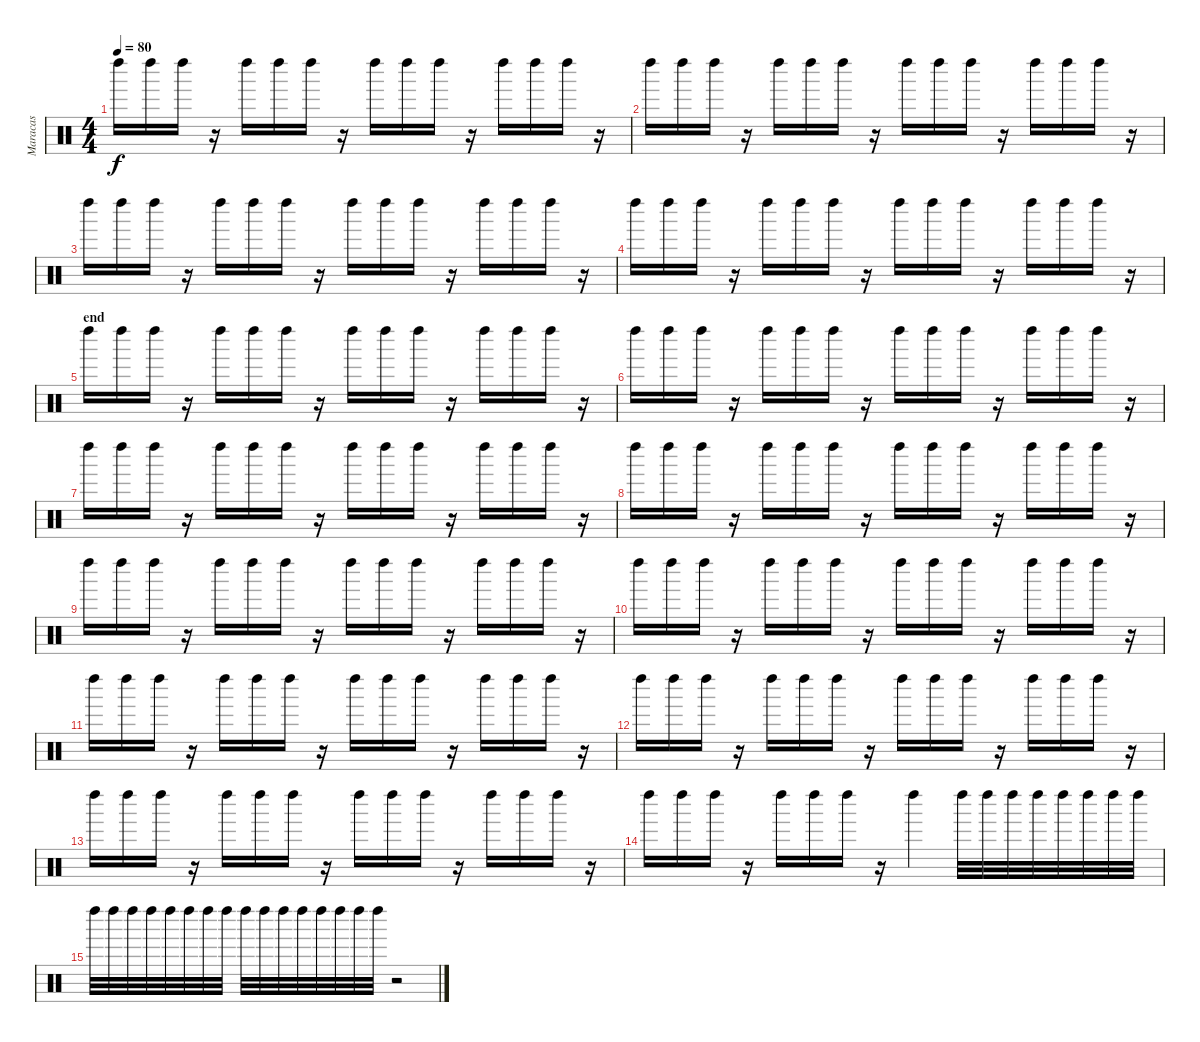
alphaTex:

\track ("Maracas" "Maracas") {instrument percussion}
\staff {score}
\articulation defaults
\ts (4 4)
\tempo 80
\clef neutral
\ks aminor "Left Maraca (hit)".16{dy f} "Left Maraca (hit)".16 "Left Maraca (hit)".16
r.16 "Left Maraca (hit)".16 "Left Maraca (hit)".16 "Left Maraca (hit)".16 r.16 "Left Maraca (hit)".16 "Left Maraca (hit)".16 "Left Maraca (hit)".16 r.16 "Left Maraca (hit)".16 "Left Maraca (hit)".16 "Left Maraca (hit)".16 r.16 |
"Left Maraca (hit)".16 "Left Maraca (hit)".16 "Left Maraca (hit)".16 r.16 "Left Maraca (hit)".16 "Left Maraca (hit)".16 "Left Maraca (hit)".16 r.16 "Left Maraca (hit)".16 "Left Maraca (hit)".16 "Left Maraca (hit)".16 r.16 "Left Maraca (hit)".16 "Left Maraca (hit)".16 "Left Maraca (hit)".16 r.16 |
"Left Maraca (hit)".16 "Left Maraca (hit)".16 "Left Maraca (hit)".16 r.16 "Left Maraca (hit)".16 "Left Maraca (hit)".16 "Left Maraca (hit)".16 r.16 "Left Maraca (hit)".16 "Left Maraca (hit)".16 "Left Maraca (hit)".16 r.16 "Left Maraca (hit)".16 "Left Maraca (hit)".16 "Left Maraca (hit)".16 r.16 |
"Left Maraca (hit)".16 "Left Maraca (hit)".16 "Left Maraca (hit)".16 r.16 "Left Maraca (hit)".16 "Left Maraca (hit)".16 "Left Maraca (hit)".16 r.16 "Left Maraca (hit)".16 "Left Maraca (hit)".16 "Left Maraca (hit)".16 r.16 "Left Maraca (hit)".16 "Left Maraca (hit)".16 "Left Maraca (hit)".16 r.16 |
\section ("" "end")
"Left Maraca (hit)".16 "Left Maraca (hit)".16 "Left Maraca (hit)".16 r.16 "Left Maraca (hit)".16 "Left Maraca (hit)".16 "Left Maraca (hit)".16 r.16 "Left Maraca (hit)".16 "Left Maraca (hit)".16 "Left Maraca (hit)".16 r.16 "Left Maraca (hit)".16 "Left Maraca (hit)".16 "Left Maraca (hit)".16 r.16 |
"Left Maraca (hit)".16 "Left Maraca (hit)".16 "Left Maraca (hit)".16 r.16 "Left Maraca (hit)".16 "Left Maraca (hit)".16 "Left Maraca (hit)".16 r.16 "Left Maraca (hit)".16 "Left Maraca (hit)".16 "Left Maraca (hit)".16 r.16 "Left Maraca (hit)".16 "Left Maraca (hit)".16 "Left Maraca (hit)".16 r.16 |
"Left Maraca (hit)".16 "Left Maraca (hit)".16 "Left Maraca (hit)".16 r.16 "Left Maraca (hit)".16 "Left Maraca (hit)".16 "Left Maraca (hit)".16 r.16 "Left Maraca (hit)".16 "Left Maraca (hit)".16 "Left Maraca (hit)".16 r.16 "Left Maraca (hit)".16 "Left Maraca (hit)".16 "Left Maraca (hit)".16 r.16 |
"Left Maraca (hit)".16 "Left Maraca (hit)".16 "Left Maraca (hit)".16 r.16 "Left Maraca (hit)".16 "Left Maraca (hit)".16 "Left Maraca (hit)".16 r.16 "Left Maraca (hit)".16 "Left Maraca (hit)".16 "Left Maraca (hit)".16 r.16 "Left Maraca (hit)".16 "Left Maraca (hit)".16 "Left Maraca (hit)".16 r.16 |
"Left Maraca (hit)".16 "Left Maraca (hit)".16 "Left Maraca (hit)".16 r.16 "Left Maraca (hit)".16 "Left Maraca (hit)".16 "Left Maraca (hit)".16 r.16 "Left Maraca (hit)".16 "Left Maraca (hit)".16 "Left Maraca (hit)".16 r.16 "Left Maraca (hit)".16 "Left Maraca (hit)".16 "Left Maraca (hit)".16 r.16 |
"Left Maraca (hit)".16 "Left Maraca (hit)".16 "Left Maraca (hit)".16 r.16 "Left Maraca (hit)".16 "Left Maraca (hit)".16 "Left Maraca (hit)".16 r.16 "Left Maraca (hit)".16 "Left Maraca (hit)".16 "Left Maraca (hit)".16 r.16 "Left Maraca (hit)".16 "Left Maraca (hit)".16 "Left Maraca (hit)".16 r.16 |
"Left Maraca (hit)".16 "Left Maraca (hit)".16 "Left Maraca (hit)".16 r.16 "Left Maraca (hit)".16 "Left Maraca (hit)".16 "Left Maraca (hit)".16 r.16 "Left Maraca (hit)".16 "Left Maraca (hit)".16 "Left Maraca (hit)".16 r.16 "Left Maraca (hit)".16 "Left Maraca (hit)".16 "Left Maraca (hit)".16 r.16 |
"Left Maraca (hit)".16 "Left Maraca (hit)".16 "Left Maraca (hit)".16 r.16 "Left Maraca (hit)".16 "Left Maraca (hit)".16 "Left Maraca (hit)".16 r.16 "Left Maraca (hit)".16 "Left Maraca (hit)".16 "Left Maraca (hit)".16 r.16 "Left Maraca (hit)".16 "Left Maraca (hit)".16 "Left Maraca (hit)".16 r.16 |
"Left Maraca (hit)".16 "Left Maraca (hit)".16 "Left Maraca (hit)".16 r.16 "Left Maraca (hit)".16 "Left Maraca (hit)".16 "Left Maraca (hit)".16 r.16 "Left Maraca (hit)".16 "Left Maraca (hit)".16 "Left Maraca (hit)".16 r.16 "Left Maraca (hit)".16 "Left Maraca (hit)".16 "Left Maraca (hit)".16 r.16 |
"Left Maraca (hit)".16 "Left Maraca (hit)".16 "Left Maraca (hit)".16 r.16 "Left Maraca (hit)".16 "Left Maraca (hit)".16 "Left Maraca (hit)".16 r.16 "Left Maraca (hit)".4 "Left Maraca (hit)".32 "Left Maraca (hit)".32 "Left Maraca (hit)".32 "Left Maraca (hit)".32 "Left Maraca (hit)".32 "Left Maraca (hit)".32 "Left Maraca (hit)".32 "Left Maraca (hit)".32 |
"Left Maraca (hit)".32 "Left Maraca (hit)".32 "Left Maraca (hit)".32 "Left Maraca (hit)".32 "Left Maraca (hit)".32 "Left Maraca (hit)".32 "Left Maraca (hit)".32 "Left Maraca (hit)".32 "Left Maraca (hit)".32 "Left Maraca (hit)".32 "Left Maraca (hit)".32 "Left Maraca (hit)".32 "Left Maraca (hit)".32 "Left Maraca (hit)".32 "Left Maraca (hit)".32 "Left Maraca (hit)".32 r.2
